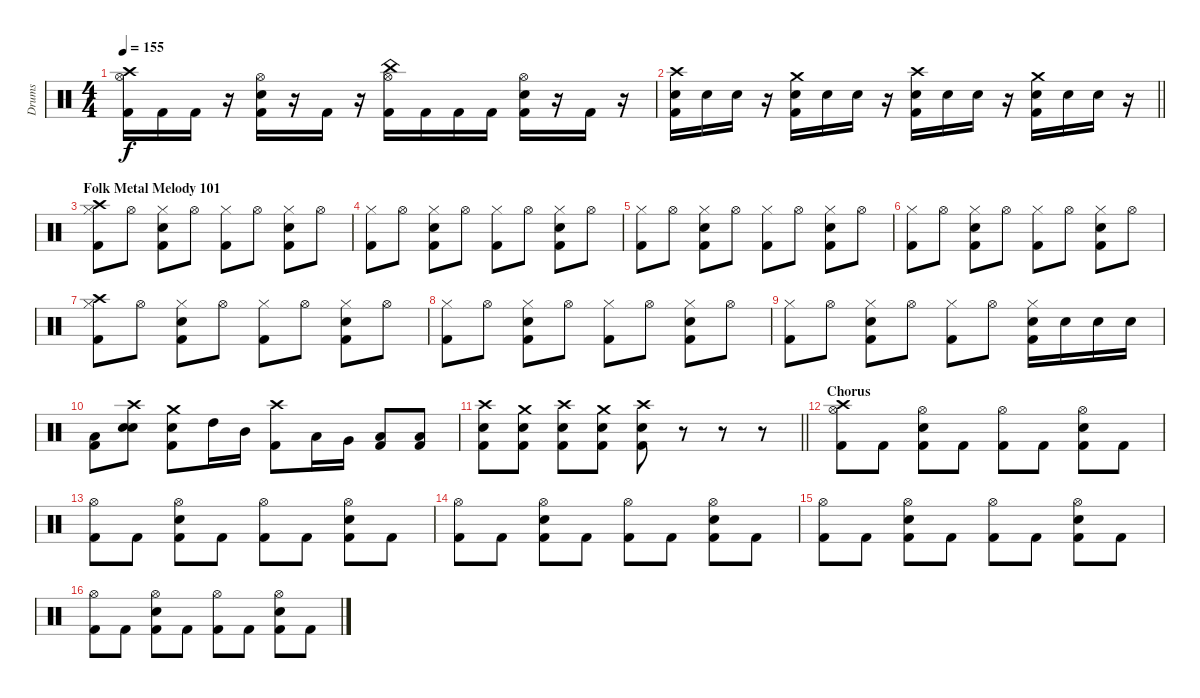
\track ("Drums" "Drums") {instrument percussion}
\staff {score}
\articulation defaults
\ts (4 4)
\tempo 155
\clef neutral
\ks c
("Crash high (hit)" "Hi-Hat (open)" "Kick (hit) 2").16{dy f} "Kick (hit) 2".16 "Kick (hit) 2".16 r.16 ("Hi-Hat (open)" "Snare (hit) 2" "Kick (hit) 2").16 r.16 "Kick (hit) 2".16 r.16 ("China (hit)" "Hi-Hat (open)" "Kick (hit) 2").16 "Kick (hit) 2".16 "Kick (hit) 2".16 "Kick (hit) 2".16 ("Hi-Hat (open)" "Snare (hit) 2" "Kick (hit) 2").16 r.16 "Kick (hit) 2".16 r.16 |
\barLineRight lightlight
("Crash high (hit)" "Snare (hit) 2" "Kick (hit) 2").16 "Snare (hit) 2".16 "Snare (hit) 2".16 r.16 ("Crash medium (hit)" "Snare (hit) 2" "Kick (hit) 2").16 "Snare (hit) 2".16 "Snare (hit) 2".16 r.16 ("Crash high (hit)" "Snare (hit) 2" "Kick (hit) 2").16 "Snare (hit) 2".16 "Snare (hit) 2".16 r.16 ("Crash medium (hit)" "Snare (hit) 2" "Kick (hit) 2").16 "Snare (hit) 2".16 "Snare (hit) 2".16 r.16 |
\section ("" "Folk Metal Melody 101")
("Crash high (hit)" "Hi-Hat (closed)" "Kick (hit) 2").8 "Hi-Hat (open)".8 ("Hi-Hat (closed)" "Snare (hit) 2" "Kick (hit) 2").8 "Hi-Hat (open)".8 ("Hi-Hat (closed)" "Kick (hit) 2").8 "Hi-Hat (open)".8 ("Hi-Hat (closed)" "Snare (hit) 2" "Kick (hit) 2").8 "Hi-Hat (open)".8 |
("Hi-Hat (closed)" "Kick (hit) 2").8 "Hi-Hat (open)".8 ("Hi-Hat (closed)" "Snare (hit) 2" "Kick (hit) 2").8 "Hi-Hat (open)".8 ("Hi-Hat (closed)" "Kick (hit) 2").8 "Hi-Hat (open)".8 ("Hi-Hat (closed)" "Snare (hit) 2" "Kick (hit) 2").8 "Hi-Hat (open)".8 |
("Hi-Hat (closed)" "Kick (hit) 2").8 "Hi-Hat (open)".8 ("Hi-Hat (closed)" "Snare (hit) 2" "Kick (hit) 2").8 "Hi-Hat (open)".8 ("Hi-Hat (closed)" "Kick (hit) 2").8 "Hi-Hat (open)".8 ("Hi-Hat (closed)" "Snare (hit) 2" "Kick (hit) 2").8 "Hi-Hat (open)".8 |
("Hi-Hat (closed)" "Kick (hit) 2").8 "Hi-Hat (open)".8 ("Hi-Hat (closed)" "Snare (hit) 2" "Kick (hit) 2").8 "Hi-Hat (open)".8 ("Hi-Hat (closed)" "Kick (hit) 2").8 "Hi-Hat (open)".8 ("Hi-Hat (closed)" "Snare (hit) 2" "Kick (hit) 2").8 "Hi-Hat (open)".8 |
("Crash high (hit)" "Hi-Hat (closed)" "Kick (hit) 2").8 "Hi-Hat (open)".8 ("Hi-Hat (closed)" "Snare (hit) 2" "Kick (hit) 2").8 "Hi-Hat (open)".8 ("Hi-Hat (closed)" "Kick (hit) 2").8 "Hi-Hat (open)".8 ("Hi-Hat (closed)" "Snare (hit) 2" "Kick (hit) 2").8 "Hi-Hat (open)".8 |
("Hi-Hat (closed)" "Kick (hit) 2").8 "Hi-Hat (open)".8 ("Hi-Hat (closed)" "Snare (hit) 2" "Kick (hit) 2").8 "Hi-Hat (open)".8 ("Hi-Hat (closed)" "Kick (hit) 2").8 "Hi-Hat (open)".8 ("Hi-Hat (closed)" "Snare (hit) 2" "Kick (hit) 2").8 "Hi-Hat (open)".8 |
("Hi-Hat (closed)" "Kick (hit) 2").8 "Hi-Hat (open)".8 ("Hi-Hat (closed)" "Snare (hit) 2" "Kick (hit) 2").8 "Hi-Hat (open)".8 ("Hi-Hat (closed)" "Kick (hit) 2").8 "Hi-Hat (open)".8 ("Hi-Hat (closed)" "Snare (hit) 2" "Kick (hit) 2").16 "Snare (hit) 2".16 "Snare (hit) 2".16 "Snare (hit) 2".16 |
("Low Floor Tom (hit)" "Kick (hit) 2").8 ("Crash high (hit)" "Snare (hit) 2" "Snare (hit) 2").8 ("Crash medium (hit)" "Snare (hit) 2" "Kick (hit) 2").8 "High Tom (hit)".16 "Mid Tom (hit)".16 ("Crash high (hit)" "Kick (hit) 2").8 "Low Tom (hit)".16 "Very Low Tom (hit)".16 ("Low Floor Tom (hit)" "Kick (hit) 2").8 ("Low Floor Tom (hit)" "Kick (hit) 2").8 |
\barLineRight lightlight
("Crash high (hit)" "Snare (hit) 2" "Kick (hit) 2").8 ("Crash medium (hit)" "Snare (hit) 2" "Kick (hit) 2").8 ("Crash high (hit)" "Snare (hit) 2" "Kick (hit) 2").8 ("Crash medium (hit)" "Snare (hit) 2" "Kick (hit) 2").8 ("Crash high (hit)" "Snare (hit) 2" "Kick (hit) 2").8 r.8 r.8 r.8 |
\section ("" "Chorus")
("Crash high (hit)" "Hi-Hat (open)" "Kick (hit) 2").8 "Kick (hit) 2".8 ("Hi-Hat (open)" "Snare (hit) 2" "Kick (hit) 2").8 "Kick (hit) 2".8 ("Hi-Hat (open)" "Kick (hit) 2").8 "Kick (hit) 2".8 ("Hi-Hat (open)" "Snare (hit) 2" "Kick (hit) 2").8 "Kick (hit) 2".8 |
("Hi-Hat (open)" "Kick (hit) 2").8 "Kick (hit) 2".8 ("Hi-Hat (open)" "Snare (hit) 2" "Kick (hit) 2").8 "Kick (hit) 2".8 ("Hi-Hat (open)" "Kick (hit) 2").8 "Kick (hit) 2".8 ("Hi-Hat (open)" "Snare (hit) 2" "Kick (hit) 2").8 "Kick (hit) 2".8 |
("Hi-Hat (open)" "Kick (hit) 2").8 "Kick (hit) 2".8 ("Hi-Hat (open)" "Snare (hit) 2" "Kick (hit) 2").8 "Kick (hit) 2".8 ("Hi-Hat (open)" "Kick (hit) 2").8 "Kick (hit) 2".8 ("Hi-Hat (open)" "Snare (hit) 2" "Kick (hit) 2").8 "Kick (hit) 2".8 |
("Hi-Hat (open)" "Kick (hit) 2").8 "Kick (hit) 2".8 ("Hi-Hat (open)" "Snare (hit) 2" "Kick (hit) 2").8 "Kick (hit) 2".8 ("Hi-Hat (open)" "Kick (hit) 2").8 "Kick (hit) 2".8 ("Hi-Hat (open)" "Snare (hit) 2" "Kick (hit) 2").8 "Kick (hit) 2".8 |
("Hi-Hat (open)" "Kick (hit) 2").8 "Kick (hit) 2".8 ("Hi-Hat (open)" "Snare (hit) 2" "Kick (hit) 2").8 "Kick (hit) 2".8 ("Hi-Hat (open)" "Kick (hit) 2").8 "Kick (hit) 2".8 ("Hi-Hat (open)" "Snare (hit) 2" "Kick (hit) 2").8 "Kick (hit) 2".8
